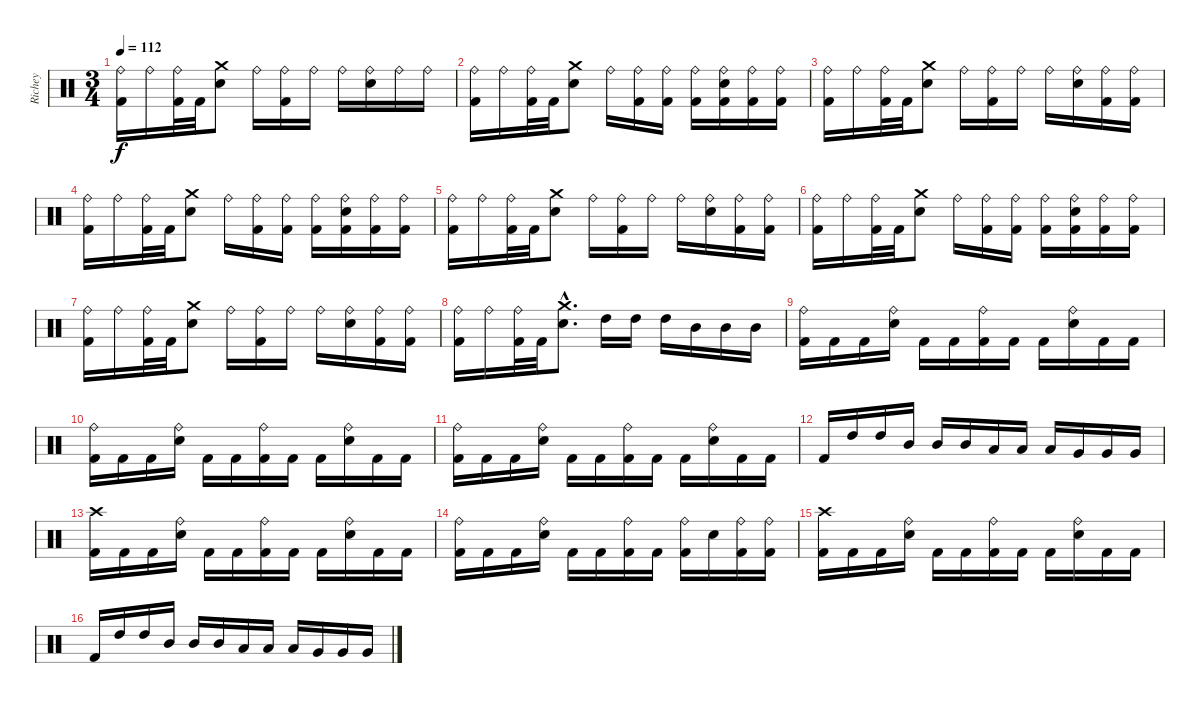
\track ("Richey" "Richey") {instrument percussion}
\staff {score}
\articulation defaults
\ts (3 4)
\tempo 112
\clef neutral
\ks c
("Ride (bell)" "Kick (hit) 2").16{dy f} "Ride (bell)".16 ("Ride (bell)" "Kick (hit) 2").32 "Kick (hit) 2".32 ("Crash medium (hit)" "Snare (hit) 2").8 "Ride (bell)".16 ("Ride (bell)" "Kick (hit) 2").16 "Ride (bell)".16 "Ride (bell)".16 ("Ride (bell)" "Snare (hit) 2").16 "Ride (bell)".16 "Ride (bell)".16 |
("Ride (bell)" "Kick (hit) 2").16 "Ride (bell)".16 ("Ride (bell)" "Kick (hit) 2").32 "Kick (hit) 2".32 ("Crash medium (hit)" "Snare (hit) 2").8 "Ride (bell)".16 ("Ride (bell)" "Kick (hit) 2").16 ("Ride (bell)" "Kick (hit) 2").16 ("Ride (bell)" "Kick (hit) 2").16 ("Ride (bell)" "Snare (hit) 2" "Kick (hit) 2").16 ("Ride (bell)" "Kick (hit) 2").16 ("Ride (bell)" "Kick (hit) 2").16 |
("Ride (bell)" "Kick (hit) 2").16 "Ride (bell)".16 ("Ride (bell)" "Kick (hit) 2").32 "Kick (hit) 2".32 ("Crash medium (hit)" "Snare (hit) 2").8 "Ride (bell)".16 ("Ride (bell)" "Kick (hit) 2").16 "Ride (bell)".16 "Ride (bell)".16 ("Ride (bell)" "Snare (hit) 2").16 ("Ride (bell)" "Kick (hit) 2").16 ("Ride (bell)" "Kick (hit) 2").16 |
("Ride (bell)" "Kick (hit) 2").16 "Ride (bell)".16 ("Ride (bell)" "Kick (hit) 2").32 "Kick (hit) 2".32 ("Crash medium (hit)" "Snare (hit) 2").8 "Ride (bell)".16 ("Ride (bell)" "Kick (hit) 2").16 ("Ride (bell)" "Kick (hit) 2").16 ("Ride (bell)" "Kick (hit) 2").16 ("Ride (bell)" "Snare (hit) 2" "Kick (hit) 2").16 ("Ride (bell)" "Kick (hit) 2").16 ("Ride (bell)" "Kick (hit) 2").16 |
("Ride (bell)" "Kick (hit) 2").16 "Ride (bell)".16 ("Ride (bell)" "Kick (hit) 2").32 "Kick (hit) 2".32 ("Crash medium (hit)" "Snare (hit) 2").8 "Ride (bell)".16 ("Ride (bell)" "Kick (hit) 2").16 "Ride (bell)".16 "Ride (bell)".16 ("Ride (bell)" "Snare (hit) 2").16 ("Ride (bell)" "Kick (hit) 2").16 ("Ride (bell)" "Kick (hit) 2").16 |
("Ride (bell)" "Kick (hit) 2").16 "Ride (bell)".16 ("Ride (bell)" "Kick (hit) 2").32 "Kick (hit) 2".32 ("Crash medium (hit)" "Snare (hit) 2").8 "Ride (bell)".16 ("Ride (bell)" "Kick (hit) 2").16 ("Ride (bell)" "Kick (hit) 2").16 ("Ride (bell)" "Kick (hit) 2").16 ("Ride (bell)" "Snare (hit) 2" "Kick (hit) 2").16 ("Ride (bell)" "Kick (hit) 2").16 ("Ride (bell)" "Kick (hit) 2").16 |
("Ride (bell)" "Kick (hit) 2").16 "Ride (bell)".16 ("Ride (bell)" "Kick (hit) 2").32 "Kick (hit) 2".32 ("Crash medium (hit)" "Snare (hit) 2").8 "Ride (bell)".16 ("Ride (bell)" "Kick (hit) 2").16 "Ride (bell)".16 "Ride (bell)".16 ("Ride (bell)" "Snare (hit) 2").16 ("Ride (bell)" "Kick (hit) 2").16 ("Ride (bell)" "Kick (hit) 2").16 |
("Ride (bell)" "Kick (hit) 2").16 "Ride (bell)".16 ("Ride (bell)" "Kick (hit) 2").32 "Kick (hit) 2".32 ("Crash medium (hit)"{hac} "Snare (hit) 2"{hac}).8{d} "High Tom (hit)".16 "High Tom (hit)".16 "High Tom (hit)".16 "Mid Tom (hit)".16 "Mid Tom (hit)".16 "Mid Tom (hit)".16 |
("Ride (bell)" "Kick (hit) 2").16 "Kick (hit) 2".16 "Kick (hit) 2".16 ("Ride (bell)" "Snare (hit) 2").16 "Kick (hit) 2".16 "Kick (hit) 2".16 ("Ride (bell)" "Kick (hit) 2").16 "Kick (hit) 2".16 "Kick (hit) 2".16 ("Ride (bell)" "Snare (hit) 2").16 "Kick (hit) 2".16 "Kick (hit) 2".16 |
("Ride (bell)" "Kick (hit) 2").16 "Kick (hit) 2".16 "Kick (hit) 2".16 ("Ride (bell)" "Snare (hit) 2").16 "Kick (hit) 2".16 "Kick (hit) 2".16 ("Ride (bell)" "Kick (hit) 2").16 "Kick (hit) 2".16 "Kick (hit) 2".16 ("Ride (bell)" "Snare (hit) 2").16 "Kick (hit) 2".16 "Kick (hit) 2".16 |
("Ride (bell)" "Kick (hit) 2").16 "Kick (hit) 2".16 "Kick (hit) 2".16 ("Ride (bell)" "Snare (hit) 2").16 "Kick (hit) 2".16 "Kick (hit) 2".16 ("Ride (bell)" "Kick (hit) 2").16 "Kick (hit) 2".16 "Kick (hit) 2".16 ("Ride (bell)" "Snare (hit) 2").16 "Kick (hit) 2".16 "Kick (hit) 2".16 |
"Kick (hit) 2".16 "High Tom (hit)".16 "High Tom (hit)".16 "Mid Tom (hit)".16 "Mid Tom (hit)".16 "Mid Tom (hit)".16 "Low Tom (hit)".16 "Low Tom (hit)".16 "Low Tom (hit)".16 "Very Low Tom (hit)".16 "Very Low Tom (hit)".16 "Very Low Tom (hit)".16 |
("Crash high (hit)" "Kick (hit) 2").16 "Kick (hit) 2".16 "Kick (hit) 2".16 ("Ride (bell)" "Snare (hit) 2").16 "Kick (hit) 2".16 "Kick (hit) 2".16 ("Ride (bell)" "Kick (hit) 2").16 "Kick (hit) 2".16 "Kick (hit) 2".16 ("Ride (bell)" "Snare (hit) 2").16 "Kick (hit) 2".16 "Kick (hit) 2".16 |
("Ride (bell)" "Kick (hit) 2").16 "Kick (hit) 2".16 "Kick (hit) 2".16 ("Ride (bell)" "Snare (hit) 2").16 "Kick (hit) 2".16 "Kick (hit) 2".16 ("Ride (bell)" "Kick (hit) 2").16 "Kick (hit) 2".16 ("Ride (bell)" "Kick (hit) 2").16 "Snare (hit) 2".16 ("Ride (bell)" "Kick (hit) 2").16 ("Ride (bell)" "Kick (hit) 2").16 |
("Crash high (hit)" "Kick (hit) 2").16 "Kick (hit) 2".16 "Kick (hit) 2".16 ("Ride (bell)" "Snare (hit) 2").16 "Kick (hit) 2".16 "Kick (hit) 2".16 ("Ride (bell)" "Kick (hit) 2").16 "Kick (hit) 2".16 "Kick (hit) 2".16 ("Ride (bell)" "Snare (hit) 2").16 "Kick (hit) 2".16 "Kick (hit) 2".16 |
"Kick (hit) 2".16 "High Tom (hit)".16 "High Tom (hit)".16 "Mid Tom (hit)".16 "Mid Tom (hit)".16 "Mid Tom (hit)".16 "Low Tom (hit)".16 "Low Tom (hit)".16 "Low Tom (hit)".16 "Very Low Tom (hit)".16 "Very Low Tom (hit)".16 "Very Low Tom (hit)".16
